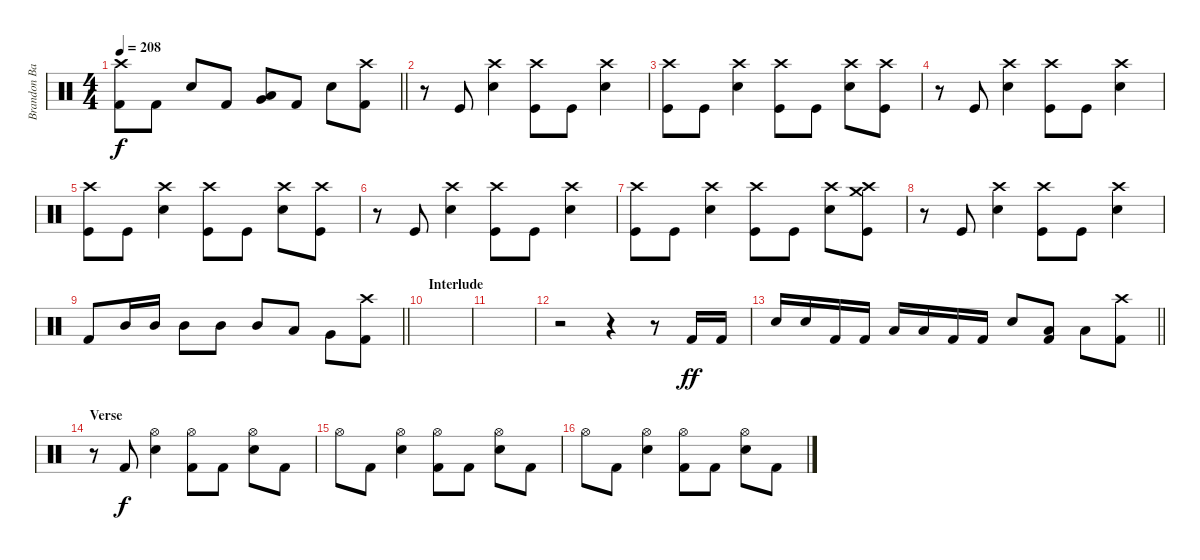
\track ("Brandon Barnes - Drums" "Brandon Ba") {instrument percussion}
\staff {score}
\articulation defaults
\ts (4 4)
\tempo 208
\clef neutral
\barLineRight lightlight
\ks c
("Kick (hit) 2" "Crash high (hit)").8{dy f} "Kick (hit) 2".8 "Snare (hit) 2".8 "Kick (hit) 2".8 ("Low Tom (hit)" "Very Low Tom (hit)").8 "Kick (hit) 2".8 "Snare (hit) 2".8 ("Kick (hit) 2" "Crash high (hit)").8 |
r.8 "Kick (hit)".8 ("Snare (hit) 2" "Crash high (hit)").4 ("Kick (hit)" "Crash high (hit)").8 "Kick (hit)".8 ("Snare (hit) 2" "Crash high (hit)").4 |
("Kick (hit)" "Crash high (hit)").8 "Kick (hit)".8 ("Snare (hit) 2" "Crash high (hit)").4 ("Kick (hit)" "Crash high (hit)").8 "Kick (hit)".8 ("Snare (hit) 2" "Crash high (hit)").8 ("Kick (hit)" "Crash high (hit)").8 |
r.8 "Kick (hit)".8 ("Snare (hit) 2" "Crash high (hit)").4 ("Kick (hit)" "Crash high (hit)").8 "Kick (hit)".8 ("Snare (hit) 2" "Crash high (hit)").4 |
("Kick (hit)" "Crash high (hit)").8 "Kick (hit)".8 ("Snare (hit) 2" "Crash high (hit)").4 ("Kick (hit)" "Crash high (hit)").8 "Kick (hit)".8 ("Snare (hit) 2" "Crash high (hit)").8 ("Kick (hit)" "Crash high (hit)").8 |
r.8 "Kick (hit)".8 ("Snare (hit) 2" "Crash high (hit)").4 ("Kick (hit)" "Crash high (hit)").8 "Kick (hit)".8 ("Snare (hit) 2" "Crash high (hit)").4 |
("Kick (hit)" "Crash high (hit)").8 "Kick (hit)".8 ("Snare (hit) 2" "Crash high (hit)").4 ("Kick (hit)" "Crash high (hit)").8 "Kick (hit)".8 ("Snare (hit) 2" "Crash high (hit)").8 ("Kick (hit)" "Crash high (hit)" "Crash medium (hit)").8 |
r.8 "Kick (hit)".8 ("Snare (hit) 2" "Crash high (hit)").4 ("Kick (hit)" "Crash high (hit)").8 "Kick (hit)".8 ("Snare (hit) 2" "Crash high (hit)").4 |
\barLineRight lightlight "Kick (hit) 2".8 "Mid Tom (hit)".16 "Mid Tom (hit)".16 "Mid Tom (hit)".8 "Mid Tom (hit)".8 "Mid Tom (hit)".8 "Low Tom (hit)".8 "Very Low Tom (hit)".8
("Kick (hit) 2" "Crash high (hit)").8 |
\section ("" "Interlude")
|
|
r.2 r.4 r.8 "Kick (hit) 2".16{dy ff} "Kick (hit) 2".16 |
\barLineRight lightlight "Snare (hit) 2".16 "Snare (hit) 2".16 "Kick (hit) 2".16 "Kick (hit) 2".16 "Low Tom (hit)".16 "Low Tom (hit)".16 "Kick (hit) 2".16 "Kick (hit) 2".16 "Snare (hit) 2".8
("Low Tom (hit)" "Kick (hit) 2").8 "Low Tom (hit)".8 ("Kick (hit) 2" "Crash high (hit)").8 |
\section ("" "Verse")
r.8 "Kick (hit) 2".8{dy f} ("Snare (hit) 2" "Hi-Hat (open)").4 ("Kick (hit) 2" "Hi-Hat (open)").8 "Kick (hit) 2".8 ("Snare (hit) 2" "Hi-Hat (open)").8 "Kick (hit) 2".8 |
"Hi-Hat (open)".8 "Kick (hit) 2".8 ("Snare (hit) 2" "Hi-Hat (open)").4 ("Kick (hit) 2" "Hi-Hat (open)").8 "Kick (hit) 2".8 ("Snare (hit) 2" "Hi-Hat (open)").8 "Kick (hit) 2".8 |
"Hi-Hat (open)".8 "Kick (hit) 2".8 ("Snare (hit) 2" "Hi-Hat (open)").4 ("Kick (hit) 2" "Hi-Hat (open)").8 "Kick (hit) 2".8 ("Snare (hit) 2" "Hi-Hat (open)").8 "Kick (hit) 2".8
